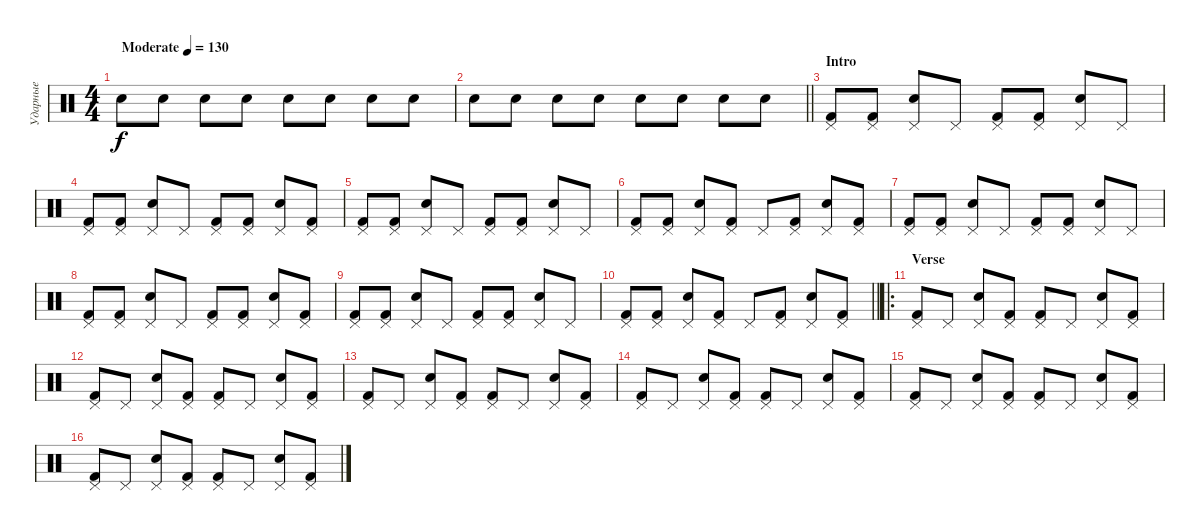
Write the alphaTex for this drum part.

\track ("Ударные" "Ударные") {instrument percussion}
\staff {score}
\articulation defaults
\ts (4 4)
\tempo (130 "Moderate")
\clef neutral
\ks c "Electric Snare (hit)".8{dy f volume 0} "Electric Snare (hit)".8{volume 13} "Electric Snare (hit)".8 "Electric Snare (hit)".8 "Electric Snare (hit)".8 "Electric Snare (hit)".8 "Electric Snare (hit)".8 "Electric Snare (hit)".8
|
\barLineRight lightlight "Electric Snare (hit)".8 "Electric Snare (hit)".8 "Electric Snare (hit)".8 "Electric Snare (hit)".8 "Electric Snare (hit)".8 "Electric Snare (hit)".8 "Electric Snare (hit)".8 "Electric Snare (hit)".8
|
\section ("" "Intro")
("Pedal Hi-Hat (hit)" "Kick (hit) 2").8 ("Pedal Hi-Hat (hit)" "Kick (hit) 2").8 ("Pedal Hi-Hat (hit)" "Electric Snare (hit)").8 "Pedal Hi-Hat (hit)".8 ("Pedal Hi-Hat (hit)" "Kick (hit) 2").8 ("Pedal Hi-Hat (hit)" "Kick (hit) 2").8 ("Pedal Hi-Hat (hit)" "Electric Snare (hit)").8 "Pedal Hi-Hat (hit)".8 |
("Pedal Hi-Hat (hit)" "Kick (hit) 2").8 ("Pedal Hi-Hat (hit)" "Kick (hit) 2").8 ("Pedal Hi-Hat (hit)" "Electric Snare (hit)").8 "Pedal Hi-Hat (hit)".8 ("Pedal Hi-Hat (hit)" "Kick (hit) 2").8 ("Pedal Hi-Hat (hit)" "Kick (hit) 2").8 ("Pedal Hi-Hat (hit)" "Electric Snare (hit)").8 ("Pedal Hi-Hat (hit)" "Kick (hit) 2").8 |
("Pedal Hi-Hat (hit)" "Kick (hit) 2").8 ("Pedal Hi-Hat (hit)" "Kick (hit) 2").8 ("Pedal Hi-Hat (hit)" "Electric Snare (hit)").8 "Pedal Hi-Hat (hit)".8 ("Pedal Hi-Hat (hit)" "Kick (hit) 2").8 ("Pedal Hi-Hat (hit)" "Kick (hit) 2").8 ("Pedal Hi-Hat (hit)" "Electric Snare (hit)").8 "Pedal Hi-Hat (hit)".8 |
("Pedal Hi-Hat (hit)" "Kick (hit) 2").8 ("Pedal Hi-Hat (hit)" "Kick (hit) 2").8 ("Pedal Hi-Hat (hit)" "Electric Snare (hit)").8 ("Pedal Hi-Hat (hit)" "Kick (hit) 2").8 "Pedal Hi-Hat (hit)".8 ("Pedal Hi-Hat (hit)" "Kick (hit) 2").8 ("Pedal Hi-Hat (hit)" "Electric Snare (hit)").8 ("Pedal Hi-Hat (hit)" "Kick (hit) 2").8 |
("Pedal Hi-Hat (hit)" "Kick (hit) 2").8 ("Pedal Hi-Hat (hit)" "Kick (hit) 2").8 ("Pedal Hi-Hat (hit)" "Electric Snare (hit)").8 "Pedal Hi-Hat (hit)".8 ("Pedal Hi-Hat (hit)" "Kick (hit) 2").8 ("Pedal Hi-Hat (hit)" "Kick (hit) 2").8 ("Pedal Hi-Hat (hit)" "Electric Snare (hit)").8 "Pedal Hi-Hat (hit)".8 |
("Pedal Hi-Hat (hit)" "Kick (hit) 2").8 ("Pedal Hi-Hat (hit)" "Kick (hit) 2").8 ("Pedal Hi-Hat (hit)" "Electric Snare (hit)").8 "Pedal Hi-Hat (hit)".8 ("Pedal Hi-Hat (hit)" "Kick (hit) 2").8 ("Pedal Hi-Hat (hit)" "Kick (hit) 2").8 ("Pedal Hi-Hat (hit)" "Electric Snare (hit)").8 ("Pedal Hi-Hat (hit)" "Kick (hit) 2").8 |
("Pedal Hi-Hat (hit)" "Kick (hit) 2").8 ("Pedal Hi-Hat (hit)" "Kick (hit) 2").8 ("Pedal Hi-Hat (hit)" "Electric Snare (hit)").8 "Pedal Hi-Hat (hit)".8 ("Pedal Hi-Hat (hit)" "Kick (hit) 2").8 ("Pedal Hi-Hat (hit)" "Kick (hit) 2").8 ("Pedal Hi-Hat (hit)" "Electric Snare (hit)").8 "Pedal Hi-Hat (hit)".8 |
\barLineRight lightlight
("Pedal Hi-Hat (hit)" "Kick (hit) 2").8 ("Pedal Hi-Hat (hit)" "Kick (hit) 2").8 ("Pedal Hi-Hat (hit)" "Electric Snare (hit)").8 ("Pedal Hi-Hat (hit)" "Kick (hit) 2").8 "Pedal Hi-Hat (hit)".8 ("Pedal Hi-Hat (hit)" "Kick (hit) 2").8 ("Pedal Hi-Hat (hit)" "Electric Snare (hit)").8 ("Pedal Hi-Hat (hit)" "Kick (hit) 2").8 |
\ro
\section ("" "Verse")
("Pedal Hi-Hat (hit)" "Kick (hit) 2").8 "Pedal Hi-Hat (hit)".8 ("Pedal Hi-Hat (hit)" "Electric Snare (hit)").8 ("Pedal Hi-Hat (hit)" "Kick (hit) 2").8 ("Pedal Hi-Hat (hit)" "Kick (hit) 2").8 "Pedal Hi-Hat (hit)".8 ("Pedal Hi-Hat (hit)" "Electric Snare (hit)").8 ("Pedal Hi-Hat (hit)" "Kick (hit) 2").8 |
("Pedal Hi-Hat (hit)" "Kick (hit) 2").8 "Pedal Hi-Hat (hit)".8 ("Pedal Hi-Hat (hit)" "Electric Snare (hit)").8 ("Pedal Hi-Hat (hit)" "Kick (hit) 2").8 ("Pedal Hi-Hat (hit)" "Kick (hit) 2").8 "Pedal Hi-Hat (hit)".8 ("Pedal Hi-Hat (hit)" "Electric Snare (hit)").8 ("Pedal Hi-Hat (hit)" "Kick (hit) 2").8 |
("Pedal Hi-Hat (hit)" "Kick (hit) 2").8 "Pedal Hi-Hat (hit)".8 ("Pedal Hi-Hat (hit)" "Electric Snare (hit)").8 ("Pedal Hi-Hat (hit)" "Kick (hit) 2").8 ("Pedal Hi-Hat (hit)" "Kick (hit) 2").8 "Pedal Hi-Hat (hit)".8 ("Pedal Hi-Hat (hit)" "Electric Snare (hit)").8 ("Pedal Hi-Hat (hit)" "Kick (hit) 2").8 |
("Pedal Hi-Hat (hit)" "Kick (hit) 2").8 "Pedal Hi-Hat (hit)".8 ("Pedal Hi-Hat (hit)" "Electric Snare (hit)").8 ("Pedal Hi-Hat (hit)" "Kick (hit) 2").8 ("Pedal Hi-Hat (hit)" "Kick (hit) 2").8 "Pedal Hi-Hat (hit)".8 ("Pedal Hi-Hat (hit)" "Electric Snare (hit)").8 ("Pedal Hi-Hat (hit)" "Kick (hit) 2").8 |
("Pedal Hi-Hat (hit)" "Kick (hit) 2").8 "Pedal Hi-Hat (hit)".8 ("Pedal Hi-Hat (hit)" "Electric Snare (hit)").8 ("Pedal Hi-Hat (hit)" "Kick (hit) 2").8 ("Pedal Hi-Hat (hit)" "Kick (hit) 2").8 "Pedal Hi-Hat (hit)".8 ("Pedal Hi-Hat (hit)" "Electric Snare (hit)").8 ("Pedal Hi-Hat (hit)" "Kick (hit) 2").8 |
("Pedal Hi-Hat (hit)" "Kick (hit) 2").8 "Pedal Hi-Hat (hit)".8 ("Pedal Hi-Hat (hit)" "Electric Snare (hit)").8 ("Pedal Hi-Hat (hit)" "Kick (hit) 2").8 ("Pedal Hi-Hat (hit)" "Kick (hit) 2").8 "Pedal Hi-Hat (hit)".8 ("Pedal Hi-Hat (hit)" "Electric Snare (hit)").8 ("Pedal Hi-Hat (hit)" "Kick (hit) 2").8
